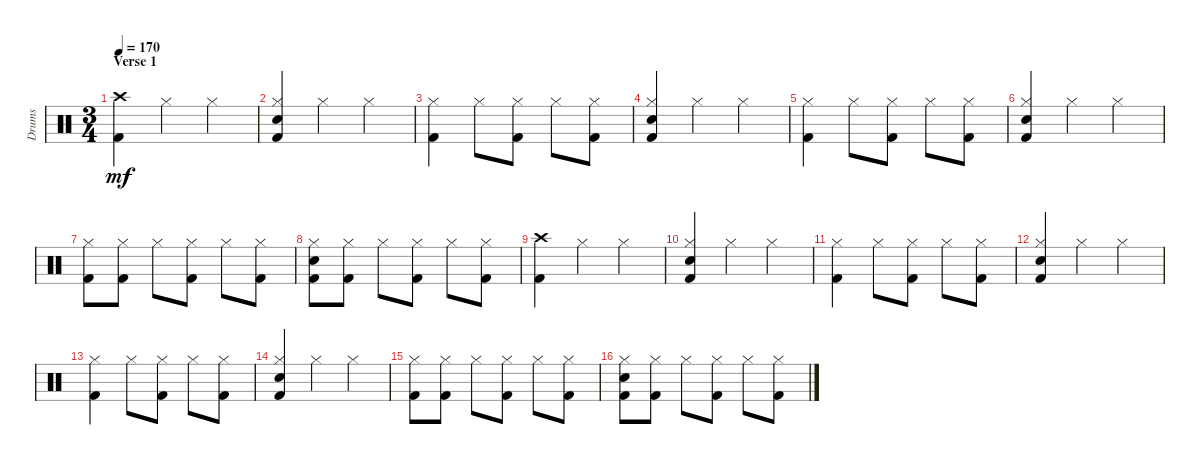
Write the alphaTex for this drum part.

\track ("Drums" "Drums") {instrument percussion}
\staff {score}
\articulation defaults
\ts (3 4)
\section ("" "Verse 1")
\tempo 170
\clef neutral
\ks c
("Crash high (hit)" "Kick (hit) 2").4{dy mf} "Hi-Hat (closed)".4 "Hi-Hat (closed)".4 |
("Hi-Hat (closed)" "Snare (hit) 2" "Kick (hit) 2").4 "Hi-Hat (closed)".4 "Hi-Hat (closed)".4 |
("Hi-Hat (closed)" "Kick (hit) 2").4 "Hi-Hat (closed)".8 ("Hi-Hat (closed)" "Kick (hit) 2").8 "Hi-Hat (closed)".8 ("Hi-Hat (closed)" "Kick (hit) 2").8 |
("Hi-Hat (closed)" "Snare (hit) 2" "Kick (hit) 2").4 "Hi-Hat (closed)".4 "Hi-Hat (closed)".4 |
("Hi-Hat (closed)" "Kick (hit) 2").4 "Hi-Hat (closed)".8 ("Hi-Hat (closed)" "Kick (hit) 2").8 "Hi-Hat (closed)".8 ("Hi-Hat (closed)" "Kick (hit) 2").8 |
("Hi-Hat (closed)" "Snare (hit) 2" "Kick (hit) 2").4 "Hi-Hat (closed)".4 "Hi-Hat (closed)".4 |
("Hi-Hat (closed)" "Kick (hit) 2").8 ("Hi-Hat (closed)" "Kick (hit) 2").8 "Hi-Hat (closed)".8 ("Hi-Hat (closed)" "Kick (hit) 2").8 "Hi-Hat (closed)".8 ("Hi-Hat (closed)" "Kick (hit) 2").8 |
("Hi-Hat (closed)" "Snare (hit) 2" "Kick (hit) 2").8 ("Hi-Hat (closed)" "Kick (hit) 2").8 "Hi-Hat (closed)".8 ("Hi-Hat (closed)" "Kick (hit) 2").8 "Hi-Hat (closed)".8 ("Hi-Hat (closed)" "Kick (hit) 2").8 |
("Crash high (hit)" "Kick (hit) 2").4 "Hi-Hat (closed)".4 "Hi-Hat (closed)".4 |
("Hi-Hat (closed)" "Snare (hit) 2" "Kick (hit) 2").4 "Hi-Hat (closed)".4 "Hi-Hat (closed)".4 |
("Hi-Hat (closed)" "Kick (hit) 2").4 "Hi-Hat (closed)".8 ("Hi-Hat (closed)" "Kick (hit) 2").8 "Hi-Hat (closed)".8 ("Hi-Hat (closed)" "Kick (hit) 2").8 |
("Hi-Hat (closed)" "Snare (hit) 2" "Kick (hit) 2").4 "Hi-Hat (closed)".4 "Hi-Hat (closed)".4 |
("Hi-Hat (closed)" "Kick (hit) 2").4 "Hi-Hat (closed)".8 ("Hi-Hat (closed)" "Kick (hit) 2").8 "Hi-Hat (closed)".8 ("Hi-Hat (closed)" "Kick (hit) 2").8 |
("Hi-Hat (closed)" "Snare (hit) 2" "Kick (hit) 2").4 "Hi-Hat (closed)".4 "Hi-Hat (closed)".4 |
("Hi-Hat (closed)" "Kick (hit) 2").8 ("Hi-Hat (closed)" "Kick (hit) 2").8 "Hi-Hat (closed)".8 ("Hi-Hat (closed)" "Kick (hit) 2").8 "Hi-Hat (closed)".8 ("Hi-Hat (closed)" "Kick (hit) 2").8 |
("Hi-Hat (closed)" "Snare (hit) 2" "Kick (hit) 2").8 ("Hi-Hat (closed)" "Kick (hit) 2").8 "Hi-Hat (closed)".8 ("Hi-Hat (closed)" "Kick (hit) 2").8 "Hi-Hat (closed)".8 ("Hi-Hat (closed)" "Kick (hit) 2").8
